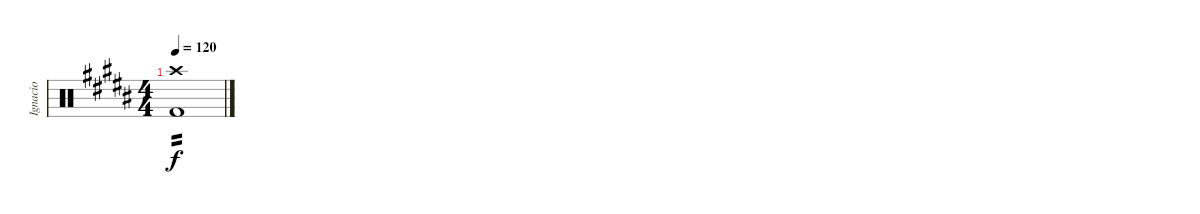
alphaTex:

\track ("Ignacio" "Ignacio") {instrument percussion}
\staff {score}
\articulation defaults
\ts (4 4)
\tempo 120
\clef neutral
\ks b
("Crash high (hit)" "Kick (hit) 2").1{tp 2 dy f}
